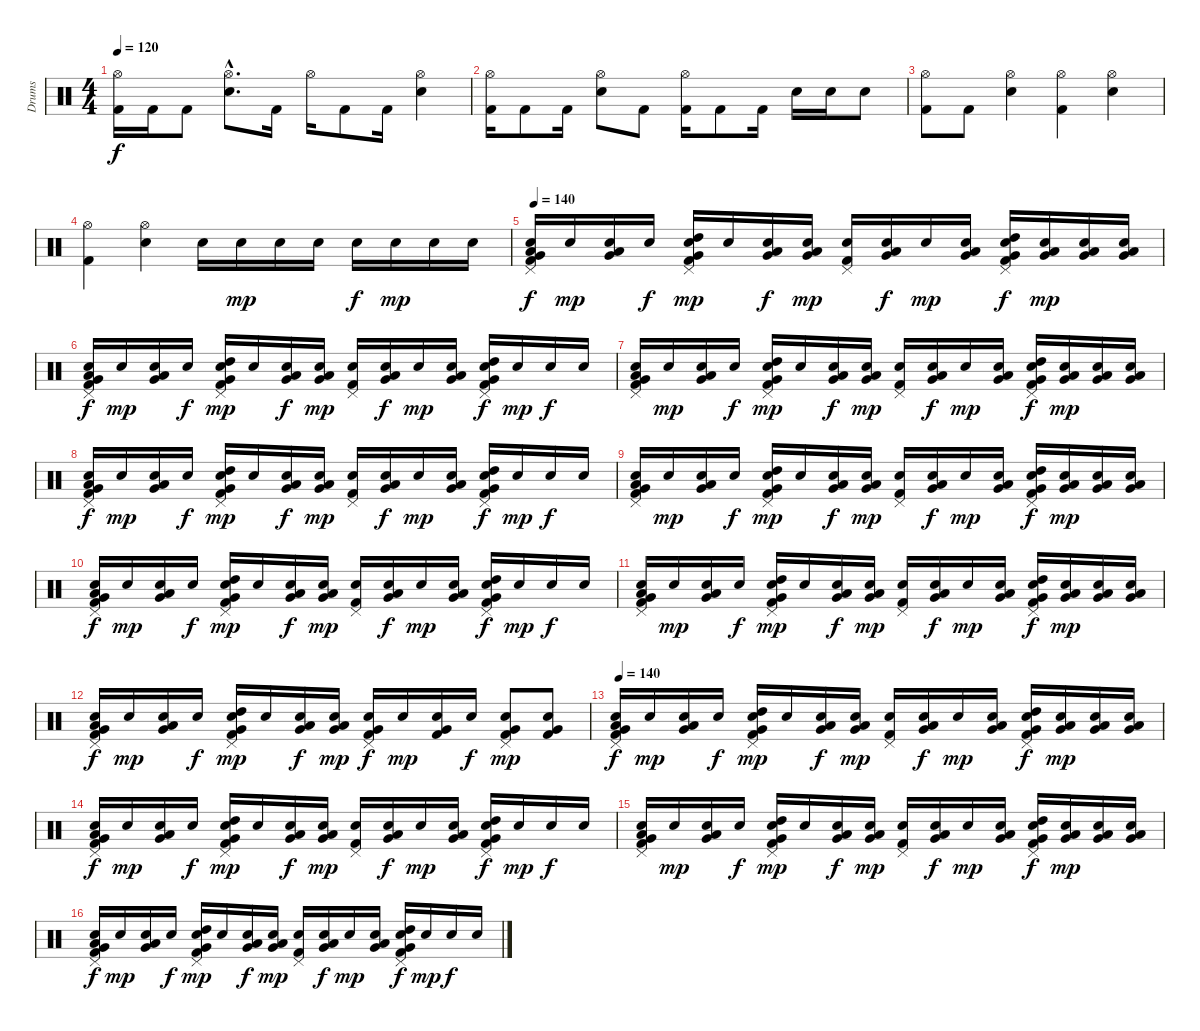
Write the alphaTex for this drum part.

\track ("Drums" "Drums") {instrument percussion}
\staff {score}
\articulation defaults
\ts (4 4)
\tempo 120
\clef neutral
\ks c
("Hi-Hat (open)" "Kick (hit) 2").16{dy f} "Kick (hit) 2".16 "Kick (hit) 2".8 ("Hi-Hat (open)"{hac} "Snare (hit) 2"{hac}).8{d} "Kick (hit) 2".16 "Hi-Hat (open)".16 "Kick (hit) 2".8 "Kick (hit) 2".16 ("Hi-Hat (open)" "Snare (hit) 2").4 |
("Hi-Hat (open)" "Kick (hit) 2").16 "Kick (hit) 2".8 "Kick (hit) 2".16 ("Hi-Hat (open)" "Snare (hit) 2").8 "Kick (hit) 2".8 ("Hi-Hat (open)" "Kick (hit) 2").16 "Kick (hit) 2".8 "Kick (hit) 2".16 "Snare (hit) 2".16 "Snare (hit) 2".16 "Snare (hit) 2".8 |
("Hi-Hat (open)" "Kick (hit) 2").8 "Kick (hit) 2".8 ("Hi-Hat (open)" "Snare (hit) 2").4 ("Hi-Hat (open)" "Kick (hit) 2").4 ("Hi-Hat (open)" "Snare (hit) 2").4 |
("Hi-Hat (open)" "Kick (hit) 2").4 ("Hi-Hat (open)" "Snare (hit) 2").4 "Snare (hit) 2".16 "Snare (hit) 2".16{dy mp} "Snare (hit) 2".16 "Snare (hit) 2".16 "Snare (hit) 2".16{dy f} "Snare (hit) 2".16{dy mp} "Snare (hit) 2".16 "Snare (hit) 2".16 |
\tempo 140
("Pedal Hi-Hat (hit)" "Snare (hit) 2" "Low Tom (hit)" "Very Low Tom (hit)" "Kick (hit) 2").16{dy f} "Snare (hit) 2".16{dy mp} ("Snare (hit) 2" "Low Tom (hit)" "Very Low Tom (hit)").16 "Snare (hit) 2".16{dy f} ("Pedal Hi-Hat (hit)" "Snare (hit) 2" "High Tom (hit)" "Very Low Tom (hit)" "Kick (hit) 2").16{dy mp} "Snare (hit) 2".16 ("Snare (hit) 2" "Low Tom (hit)" "Very Low Tom (hit)").16{dy f} ("Snare (hit) 2" "Low Tom (hit)" "Very Low Tom (hit)").16{dy mp} ("Pedal Hi-Hat (hit)" "Snare (hit) 2" "Kick (hit) 2").16 ("Snare (hit) 2" "Low Tom (hit)" "Very Low Tom (hit)").16{dy f} "Snare (hit) 2".16{dy mp} ("Snare (hit) 2" "Low Tom (hit)" "Very Low Tom (hit)").16 ("Pedal Hi-Hat (hit)" "Snare (hit) 2" "High Tom (hit)" "Very Low Tom (hit)" "Kick (hit) 2").16{dy f} ("Snare (hit) 2" "Low Tom (hit)" "Very Low Tom (hit)").16{dy mp} ("Snare (hit) 2" "Low Tom (hit)" "Very Low Tom (hit)").16 ("Snare (hit) 2" "Low Tom (hit)" "Very Low Tom (hit)").16 |
("Pedal Hi-Hat (hit)" "Snare (hit) 2" "Low Tom (hit)" "Very Low Tom (hit)" "Kick (hit) 2").16{dy f} "Snare (hit) 2".16{dy mp} ("Snare (hit) 2" "Low Tom (hit)" "Very Low Tom (hit)").16 "Snare (hit) 2".16{dy f} ("Pedal Hi-Hat (hit)" "Snare (hit) 2" "High Tom (hit)" "Very Low Tom (hit)" "Kick (hit) 2").16{dy mp} "Snare (hit) 2".16 ("Snare (hit) 2" "Low Tom (hit)" "Very Low Tom (hit)").16{dy f} ("Snare (hit) 2" "Low Tom (hit)" "Very Low Tom (hit)").16{dy mp} ("Pedal Hi-Hat (hit)" "Snare (hit) 2" "Kick (hit) 2").16 ("Snare (hit) 2" "Low Tom (hit)" "Very Low Tom (hit)").16{dy f} "Snare (hit) 2".16{dy mp} ("Snare (hit) 2" "Low Tom (hit)" "Very Low Tom (hit)").16 ("Pedal Hi-Hat (hit)" "Snare (hit) 2" "High Tom (hit)" "Very Low Tom (hit)" "Kick (hit) 2").16{dy f} "Snare (hit) 2".16{dy mp} "Snare (hit) 2".16{dy f} "Snare (hit) 2".16 |
("Pedal Hi-Hat (hit)" "Snare (hit) 2" "Low Tom (hit)" "Very Low Tom (hit)" "Kick (hit) 2").16 "Snare (hit) 2".16{dy mp} ("Snare (hit) 2" "Low Tom (hit)" "Very Low Tom (hit)").16 "Snare (hit) 2".16{dy f} ("Pedal Hi-Hat (hit)" "Snare (hit) 2" "High Tom (hit)" "Very Low Tom (hit)" "Kick (hit) 2").16{dy mp} "Snare (hit) 2".16 ("Snare (hit) 2" "Low Tom (hit)" "Very Low Tom (hit)").16{dy f} ("Snare (hit) 2" "Low Tom (hit)" "Very Low Tom (hit)").16{dy mp} ("Pedal Hi-Hat (hit)" "Snare (hit) 2" "Kick (hit) 2").16 ("Snare (hit) 2" "Low Tom (hit)" "Very Low Tom (hit)").16{dy f} "Snare (hit) 2".16{dy mp} ("Snare (hit) 2" "Low Tom (hit)" "Very Low Tom (hit)").16 ("Pedal Hi-Hat (hit)" "Snare (hit) 2" "High Tom (hit)" "Very Low Tom (hit)" "Kick (hit) 2").16{dy f} ("Snare (hit) 2" "Low Tom (hit)" "Very Low Tom (hit)").16{dy mp} ("Snare (hit) 2" "Low Tom (hit)" "Very Low Tom (hit)").16 ("Snare (hit) 2" "Low Tom (hit)" "Very Low Tom (hit)").16 |
("Pedal Hi-Hat (hit)" "Snare (hit) 2" "Low Tom (hit)" "Very Low Tom (hit)" "Kick (hit) 2").16{dy f} "Snare (hit) 2".16{dy mp} ("Snare (hit) 2" "Low Tom (hit)" "Very Low Tom (hit)").16 "Snare (hit) 2".16{dy f} ("Pedal Hi-Hat (hit)" "Snare (hit) 2" "High Tom (hit)" "Very Low Tom (hit)" "Kick (hit) 2").16{dy mp} "Snare (hit) 2".16 ("Snare (hit) 2" "Low Tom (hit)" "Very Low Tom (hit)").16{dy f} ("Snare (hit) 2" "Low Tom (hit)" "Very Low Tom (hit)").16{dy mp} ("Pedal Hi-Hat (hit)" "Snare (hit) 2" "Kick (hit) 2").16 ("Snare (hit) 2" "Low Tom (hit)" "Very Low Tom (hit)").16{dy f} "Snare (hit) 2".16{dy mp} ("Snare (hit) 2" "Low Tom (hit)" "Very Low Tom (hit)").16 ("Pedal Hi-Hat (hit)" "Snare (hit) 2" "High Tom (hit)" "Very Low Tom (hit)" "Kick (hit) 2").16{dy f} "Snare (hit) 2".16{dy mp} "Snare (hit) 2".16{dy f} "Snare (hit) 2".16 |
("Pedal Hi-Hat (hit)" "Snare (hit) 2" "Low Tom (hit)" "Very Low Tom (hit)" "Kick (hit) 2").16 "Snare (hit) 2".16{dy mp} ("Snare (hit) 2" "Low Tom (hit)" "Very Low Tom (hit)").16 "Snare (hit) 2".16{dy f} ("Pedal Hi-Hat (hit)" "Snare (hit) 2" "High Tom (hit)" "Very Low Tom (hit)" "Kick (hit) 2").16{dy mp} "Snare (hit) 2".16 ("Snare (hit) 2" "Low Tom (hit)" "Very Low Tom (hit)").16{dy f} ("Snare (hit) 2" "Low Tom (hit)" "Very Low Tom (hit)").16{dy mp} ("Pedal Hi-Hat (hit)" "Snare (hit) 2" "Kick (hit) 2").16 ("Snare (hit) 2" "Low Tom (hit)" "Very Low Tom (hit)").16{dy f} "Snare (hit) 2".16{dy mp} ("Snare (hit) 2" "Low Tom (hit)" "Very Low Tom (hit)").16 ("Pedal Hi-Hat (hit)" "Snare (hit) 2" "High Tom (hit)" "Very Low Tom (hit)" "Kick (hit) 2").16{dy f} ("Snare (hit) 2" "Low Tom (hit)" "Very Low Tom (hit)").16{dy mp} ("Snare (hit) 2" "Low Tom (hit)" "Very Low Tom (hit)").16 ("Snare (hit) 2" "Low Tom (hit)" "Very Low Tom (hit)").16 |
("Pedal Hi-Hat (hit)" "Snare (hit) 2" "Low Tom (hit)" "Very Low Tom (hit)" "Kick (hit) 2").16{dy f} "Snare (hit) 2".16{dy mp} ("Snare (hit) 2" "Low Tom (hit)" "Very Low Tom (hit)").16 "Snare (hit) 2".16{dy f} ("Pedal Hi-Hat (hit)" "Snare (hit) 2" "High Tom (hit)" "Very Low Tom (hit)" "Kick (hit) 2").16{dy mp} "Snare (hit) 2".16 ("Snare (hit) 2" "Low Tom (hit)" "Very Low Tom (hit)").16{dy f} ("Snare (hit) 2" "Low Tom (hit)" "Very Low Tom (hit)").16{dy mp} ("Pedal Hi-Hat (hit)" "Snare (hit) 2" "Kick (hit) 2").16 ("Snare (hit) 2" "Low Tom (hit)" "Very Low Tom (hit)").16{dy f} "Snare (hit) 2".16{dy mp} ("Snare (hit) 2" "Low Tom (hit)" "Very Low Tom (hit)").16 ("Pedal Hi-Hat (hit)" "Snare (hit) 2" "High Tom (hit)" "Very Low Tom (hit)" "Kick (hit) 2").16{dy f} "Snare (hit) 2".16{dy mp} "Snare (hit) 2".16{dy f} "Snare (hit) 2".16 |
("Pedal Hi-Hat (hit)" "Snare (hit) 2" "Low Tom (hit)" "Very Low Tom (hit)" "Kick (hit) 2").16 "Snare (hit) 2".16{dy mp} ("Snare (hit) 2" "Low Tom (hit)" "Very Low Tom (hit)").16 "Snare (hit) 2".16{dy f} ("Pedal Hi-Hat (hit)" "Snare (hit) 2" "High Tom (hit)" "Very Low Tom (hit)" "Kick (hit) 2").16{dy mp} "Snare (hit) 2".16 ("Snare (hit) 2" "Low Tom (hit)" "Very Low Tom (hit)").16{dy f} ("Snare (hit) 2" "Low Tom (hit)" "Very Low Tom (hit)").16{dy mp} ("Pedal Hi-Hat (hit)" "Snare (hit) 2" "Kick (hit) 2").16 ("Snare (hit) 2" "Low Tom (hit)" "Very Low Tom (hit)").16{dy f} "Snare (hit) 2".16{dy mp} ("Snare (hit) 2" "Low Tom (hit)" "Very Low Tom (hit)").16 ("Pedal Hi-Hat (hit)" "Snare (hit) 2" "High Tom (hit)" "Very Low Tom (hit)" "Kick (hit) 2").16{dy f} ("Snare (hit) 2" "Low Tom (hit)" "Very Low Tom (hit)").16{dy mp} ("Snare (hit) 2" "Low Tom (hit)" "Very Low Tom (hit)").16 ("Snare (hit) 2" "Low Tom (hit)" "Very Low Tom (hit)").16 |
("Pedal Hi-Hat (hit)" "Snare (hit) 2" "Low Tom (hit)" "Very Low Tom (hit)" "Kick (hit) 2").16{dy f} "Snare (hit) 2".16{dy mp} ("Snare (hit) 2" "Low Tom (hit)" "Very Low Tom (hit)").16 "Snare (hit) 2".16{dy f} ("Pedal Hi-Hat (hit)" "Snare (hit) 2" "High Tom (hit)" "Very Low Tom (hit)" "Kick (hit) 2").16{dy mp} "Snare (hit) 2".16 ("Snare (hit) 2" "Low Tom (hit)" "Very Low Tom (hit)").16{dy f} ("Snare (hit) 2" "Low Tom (hit)" "Very Low Tom (hit)").16{dy mp} ("Pedal Hi-Hat (hit)" "Snare (hit) 2" "Very Low Tom (hit)" "Kick (hit) 2").16{dy f} "Snare (hit) 2".16{dy mp} ("Snare (hit) 2" "Very Low Tom (hit)" "Kick (hit) 2").16 "Snare (hit) 2".16{dy f} ("Pedal Hi-Hat (hit)" "Snare (hit) 2" "Very Low Tom (hit)" "Kick (hit) 2").8{dy mp} ("Snare (hit) 2" "Very Low Tom (hit)" "Kick (hit) 2").8 |
\tempo 140
("Pedal Hi-Hat (hit)" "Snare (hit) 2" "Low Tom (hit)" "Very Low Tom (hit)" "Kick (hit) 2").16{dy f} "Snare (hit) 2".16{dy mp} ("Snare (hit) 2" "Low Tom (hit)" "Very Low Tom (hit)").16 "Snare (hit) 2".16{dy f} ("Pedal Hi-Hat (hit)" "Snare (hit) 2" "High Tom (hit)" "Very Low Tom (hit)" "Kick (hit) 2").16{dy mp} "Snare (hit) 2".16 ("Snare (hit) 2" "Low Tom (hit)" "Very Low Tom (hit)").16{dy f} ("Snare (hit) 2" "Low Tom (hit)" "Very Low Tom (hit)").16{dy mp} ("Pedal Hi-Hat (hit)" "Snare (hit) 2" "Kick (hit) 2").16 ("Snare (hit) 2" "Low Tom (hit)" "Very Low Tom (hit)").16{dy f} "Snare (hit) 2".16{dy mp} ("Snare (hit) 2" "Low Tom (hit)" "Very Low Tom (hit)").16 ("Pedal Hi-Hat (hit)" "Snare (hit) 2" "High Tom (hit)" "Very Low Tom (hit)" "Kick (hit) 2").16{dy f} ("Snare (hit) 2" "Low Tom (hit)" "Very Low Tom (hit)").16{dy mp} ("Snare (hit) 2" "Low Tom (hit)" "Very Low Tom (hit)").16 ("Snare (hit) 2" "Low Tom (hit)" "Very Low Tom (hit)").16 |
("Pedal Hi-Hat (hit)" "Snare (hit) 2" "Low Tom (hit)" "Very Low Tom (hit)" "Kick (hit) 2").16{dy f} "Snare (hit) 2".16{dy mp} ("Snare (hit) 2" "Low Tom (hit)" "Very Low Tom (hit)").16 "Snare (hit) 2".16{dy f} ("Pedal Hi-Hat (hit)" "Snare (hit) 2" "High Tom (hit)" "Very Low Tom (hit)" "Kick (hit) 2").16{dy mp} "Snare (hit) 2".16 ("Snare (hit) 2" "Low Tom (hit)" "Very Low Tom (hit)").16{dy f} ("Snare (hit) 2" "Low Tom (hit)" "Very Low Tom (hit)").16{dy mp} ("Pedal Hi-Hat (hit)" "Snare (hit) 2" "Kick (hit) 2").16 ("Snare (hit) 2" "Low Tom (hit)" "Very Low Tom (hit)").16{dy f} "Snare (hit) 2".16{dy mp} ("Snare (hit) 2" "Low Tom (hit)" "Very Low Tom (hit)").16 ("Pedal Hi-Hat (hit)" "Snare (hit) 2" "High Tom (hit)" "Very Low Tom (hit)" "Kick (hit) 2").16{dy f} "Snare (hit) 2".16{dy mp} "Snare (hit) 2".16{dy f} "Snare (hit) 2".16 |
("Pedal Hi-Hat (hit)" "Snare (hit) 2" "Low Tom (hit)" "Very Low Tom (hit)" "Kick (hit) 2").16 "Snare (hit) 2".16{dy mp} ("Snare (hit) 2" "Low Tom (hit)" "Very Low Tom (hit)").16 "Snare (hit) 2".16{dy f} ("Pedal Hi-Hat (hit)" "Snare (hit) 2" "High Tom (hit)" "Very Low Tom (hit)" "Kick (hit) 2").16{dy mp} "Snare (hit) 2".16 ("Snare (hit) 2" "Low Tom (hit)" "Very Low Tom (hit)").16{dy f} ("Snare (hit) 2" "Low Tom (hit)" "Very Low Tom (hit)").16{dy mp} ("Pedal Hi-Hat (hit)" "Snare (hit) 2" "Kick (hit) 2").16 ("Snare (hit) 2" "Low Tom (hit)" "Very Low Tom (hit)").16{dy f} "Snare (hit) 2".16{dy mp} ("Snare (hit) 2" "Low Tom (hit)" "Very Low Tom (hit)").16 ("Pedal Hi-Hat (hit)" "Snare (hit) 2" "High Tom (hit)" "Very Low Tom (hit)" "Kick (hit) 2").16{dy f} ("Snare (hit) 2" "Low Tom (hit)" "Very Low Tom (hit)").16{dy mp} ("Snare (hit) 2" "Low Tom (hit)" "Very Low Tom (hit)").16 ("Snare (hit) 2" "Low Tom (hit)" "Very Low Tom (hit)").16 |
("Pedal Hi-Hat (hit)" "Snare (hit) 2" "Low Tom (hit)" "Very Low Tom (hit)" "Kick (hit) 2").16{dy f} "Snare (hit) 2".16{dy mp} ("Snare (hit) 2" "Low Tom (hit)" "Very Low Tom (hit)").16 "Snare (hit) 2".16{dy f} ("Pedal Hi-Hat (hit)" "Snare (hit) 2" "High Tom (hit)" "Very Low Tom (hit)" "Kick (hit) 2").16{dy mp} "Snare (hit) 2".16 ("Snare (hit) 2" "Low Tom (hit)" "Very Low Tom (hit)").16{dy f} ("Snare (hit) 2" "Low Tom (hit)" "Very Low Tom (hit)").16{dy mp} ("Pedal Hi-Hat (hit)" "Snare (hit) 2" "Kick (hit) 2").16 ("Snare (hit) 2" "Low Tom (hit)" "Very Low Tom (hit)").16{dy f} "Snare (hit) 2".16{dy mp} ("Snare (hit) 2" "Low Tom (hit)" "Very Low Tom (hit)").16 ("Pedal Hi-Hat (hit)" "Snare (hit) 2" "High Tom (hit)" "Very Low Tom (hit)" "Kick (hit) 2").16{dy f} "Snare (hit) 2".16{dy mp} "Snare (hit) 2".16{dy f} "Snare (hit) 2".16
